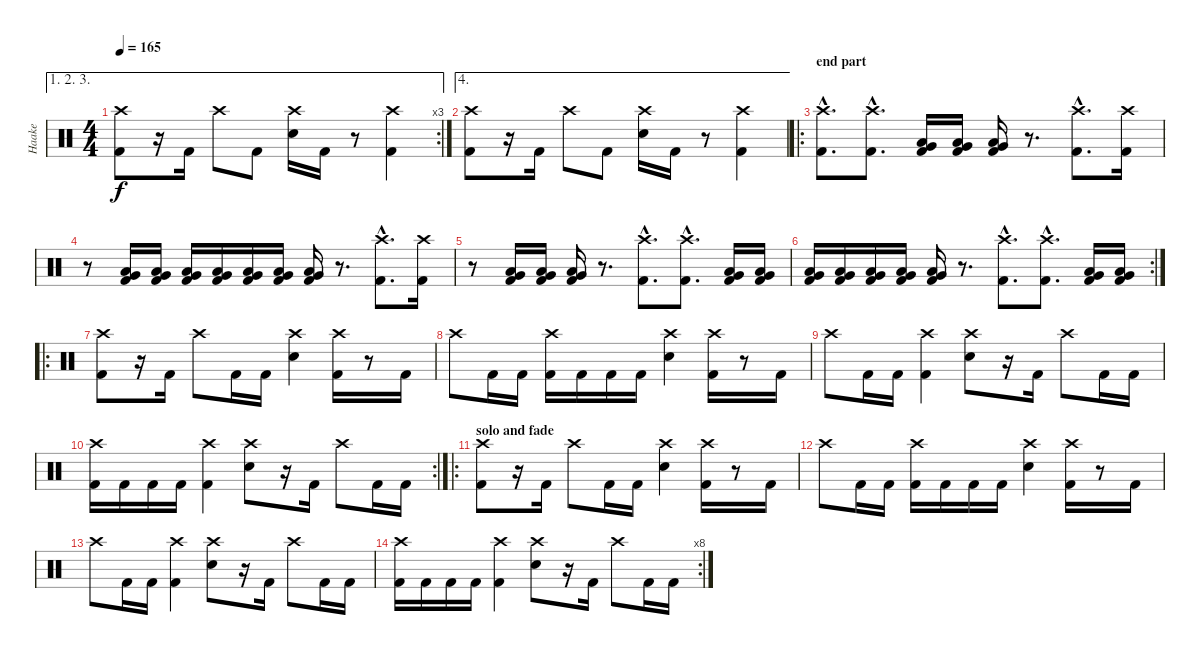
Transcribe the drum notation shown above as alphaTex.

\track ("Haake" "Haake") {instrument percussion}
\staff {score}
\articulation defaults
\ae (1 2 3)
\rc 3
\ts (4 4)
\tempo 165
\clef neutral
\ks c
("Crash high (hit)" "Kick (hit) 2").8{dy f} r.16 "Kick (hit) 2".16 "Crash high (hit)".8 "Kick (hit) 2".8 ("Crash high (hit)" "Electric Snare (hit)").16 "Kick (hit) 2".16 r.8 ("Crash high (hit)" "Kick (hit) 2").4 |
\ae 4
("Crash high (hit)" "Kick (hit) 2").8 r.16 "Kick (hit) 2".16 "Crash high (hit)".8 "Kick (hit) 2".8 ("Crash high (hit)" "Electric Snare (hit)").16 "Kick (hit) 2".16 r.8 ("Crash high (hit)" "Kick (hit) 2").4 |
\ro
\section ("" "end part")
("Crash high (hit)"{hac} "Kick (hit) 2"{hac}).8{d} ("Crash high (hit)"{hac} "Kick (hit) 2"{hac}).8{d} ("Very Low Tom (hit)" "Low Floor Tom (hit)" "Kick (hit) 2").16 ("Very Low Tom (hit)" "Low Floor Tom (hit)" "Kick (hit) 2").16 ("Very Low Tom (hit)" "Low Floor Tom (hit)" "Kick (hit) 2").16 r.8{d} ("Crash high (hit)"{hac} "Kick (hit) 2"{hac}).8{d} ("Crash high (hit)" "Kick (hit) 2").16 |
r.8 ("Very Low Tom (hit)" "Low Floor Tom (hit)" "Kick (hit) 2").16 ("Very Low Tom (hit)" "Low Floor Tom (hit)" "Kick (hit) 2").16 ("Very Low Tom (hit)" "Low Floor Tom (hit)" "Kick (hit) 2").16 ("Very Low Tom (hit)" "Low Floor Tom (hit)" "Kick (hit) 2").16 ("Very Low Tom (hit)" "Low Floor Tom (hit)" "Kick (hit) 2").16 ("Very Low Tom (hit)" "Low Floor Tom (hit)" "Kick (hit) 2").16 ("Very Low Tom (hit)" "Low Floor Tom (hit)" "Kick (hit) 2").16 r.8{d} ("Crash high (hit)"{hac} "Kick (hit) 2"{hac}).8{d} ("Crash high (hit)" "Kick (hit) 2").16 |
r.8 ("Very Low Tom (hit)" "Low Floor Tom (hit)" "Kick (hit) 2").16 ("Very Low Tom (hit)" "Low Floor Tom (hit)" "Kick (hit) 2").16 ("Very Low Tom (hit)" "Low Floor Tom (hit)" "Kick (hit) 2").16 r.8{d} ("Crash high (hit)"{hac} "Kick (hit) 2"{hac}).8{d} ("Crash high (hit)"{hac} "Kick (hit) 2"{hac}).8{d} ("Very Low Tom (hit)" "Low Floor Tom (hit)" "Kick (hit) 2").16 ("Very Low Tom (hit)" "Low Floor Tom (hit)" "Kick (hit) 2").16 |
\rc 2
("Very Low Tom (hit)" "Low Floor Tom (hit)" "Kick (hit) 2").16 ("Very Low Tom (hit)" "Low Floor Tom (hit)" "Kick (hit) 2").16 ("Very Low Tom (hit)" "Low Floor Tom (hit)" "Kick (hit) 2").16 ("Very Low Tom (hit)" "Low Floor Tom (hit)" "Kick (hit) 2").16 ("Very Low Tom (hit)" "Low Floor Tom (hit)" "Kick (hit) 2").16 r.8{d} ("Crash high (hit)"{hac} "Kick (hit) 2"{hac}).8{d} ("Crash high (hit)"{hac} "Kick (hit) 2"{hac}).8{d} ("Very Low Tom (hit)" "Low Floor Tom (hit)" "Kick (hit) 2").16 ("Very Low Tom (hit)" "Low Floor Tom (hit)" "Kick (hit) 2").16 |
\ro
("Crash high (hit)" "Kick (hit) 2").8 r.16 "Kick (hit) 2".16 "Crash high (hit)".8 "Kick (hit) 2".16 "Kick (hit) 2".16 ("Crash high (hit)" "Electric Snare (hit)").4 ("Crash high (hit)" "Kick (hit) 2").16 r.8 "Kick (hit) 2".16 |
"Crash high (hit)".8 "Kick (hit) 2".16 "Kick (hit) 2".16 ("Crash high (hit)" "Kick (hit) 2").16 "Kick (hit) 2".16 "Kick (hit) 2".16 "Kick (hit) 2".16 ("Crash high (hit)" "Electric Snare (hit)").4 ("Crash high (hit)" "Kick (hit) 2").16 r.8 "Kick (hit) 2".16 |
"Crash high (hit)".8 "Kick (hit) 2".16 "Kick (hit) 2".16 ("Crash high (hit)" "Kick (hit) 2").4 ("Crash high (hit)" "Electric Snare (hit)").8 r.16 "Kick (hit) 2".16 "Crash high (hit)".8 "Kick (hit) 2".16 "Kick (hit) 2".16 |
\rc 2
("Crash high (hit)" "Kick (hit) 2").16 "Kick (hit) 2".16 "Kick (hit) 2".16 "Kick (hit) 2".16 ("Crash high (hit)" "Kick (hit) 2").4 ("Crash high (hit)" "Electric Snare (hit)").8 r.16 "Kick (hit) 2".16 "Crash high (hit)".8 "Kick (hit) 2".16 "Kick (hit) 2".16 |
\ro
\section ("" "solo and fade")
("Crash high (hit)" "Kick (hit) 2").8 r.16 "Kick (hit) 2".16 "Crash high (hit)".8 "Kick (hit) 2".16 "Kick (hit) 2".16 ("Crash high (hit)" "Electric Snare (hit)").4 ("Crash high (hit)" "Kick (hit) 2").16 r.8 "Kick (hit) 2".16 |
"Crash high (hit)".8 "Kick (hit) 2".16 "Kick (hit) 2".16 ("Crash high (hit)" "Kick (hit) 2").16 "Kick (hit) 2".16 "Kick (hit) 2".16 "Kick (hit) 2".16 ("Crash high (hit)" "Electric Snare (hit)").4 ("Crash high (hit)" "Kick (hit) 2").16 r.8 "Kick (hit) 2".16 |
"Crash high (hit)".8 "Kick (hit) 2".16 "Kick (hit) 2".16 ("Crash high (hit)" "Kick (hit) 2").4 ("Crash high (hit)" "Electric Snare (hit)").8 r.16 "Kick (hit) 2".16 "Crash high (hit)".8 "Kick (hit) 2".16 "Kick (hit) 2".16 |
\rc 8
("Crash high (hit)" "Kick (hit) 2").16 "Kick (hit) 2".16 "Kick (hit) 2".16 "Kick (hit) 2".16 ("Crash high (hit)" "Kick (hit) 2").4 ("Crash high (hit)" "Electric Snare (hit)").8 r.16 "Kick (hit) 2".16 "Crash high (hit)".8 "Kick (hit) 2".16 "Kick (hit) 2".16
